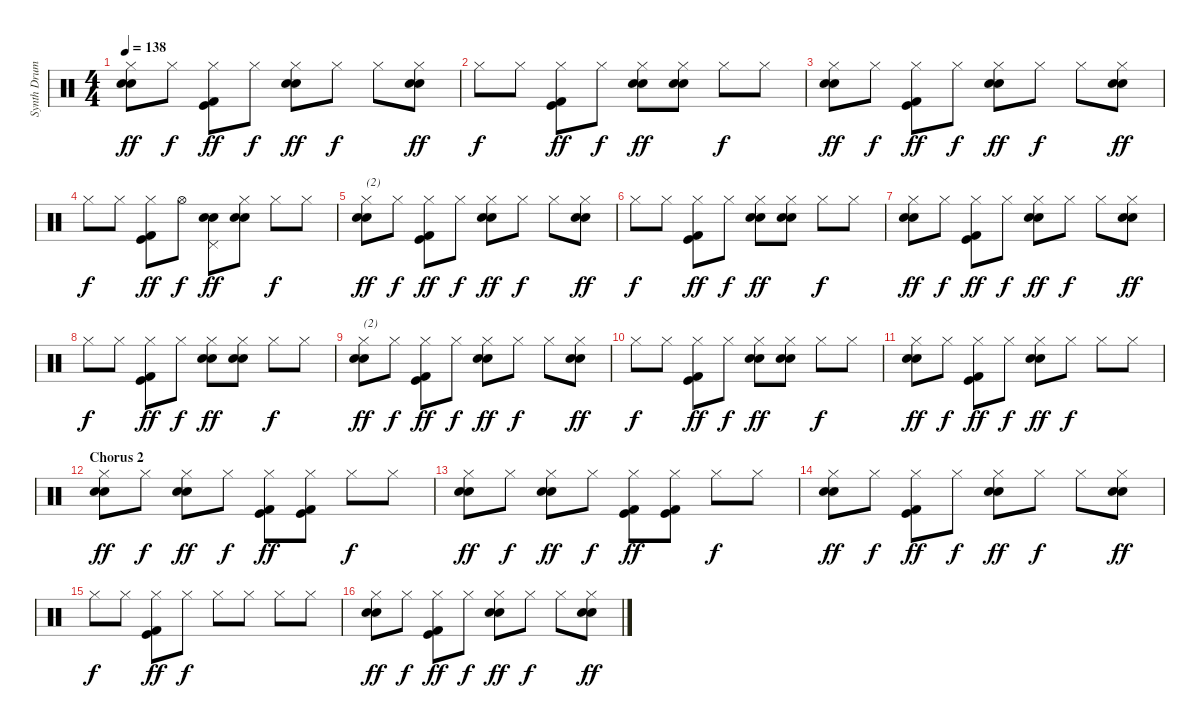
\track ("Synth Drums" "Synth Drum") {instrument percussion}
\staff {score}
\articulation defaults
\ts (4 4)
\tempo 138
\clef neutral
\ks c
("Hi-Hat (closed)" "Electric Snare (hit)" "Snare (hit) 2").8{dy ff} "Hi-Hat (closed)".8{dy f} ("Hi-Hat (closed)" "Kick (hit)" "Kick (hit) 2").8{dy ff} "Hi-Hat (closed)".8{dy f} ("Hi-Hat (closed)" "Electric Snare (hit)" "Snare (hit) 2").8{dy ff} "Hi-Hat (closed)".8{dy f} "Hi-Hat (closed)".8 ("Hi-Hat (closed)" "Electric Snare (hit)" "Snare (hit) 2").8{dy ff} |
"Hi-Hat (closed)".8{dy f} "Hi-Hat (closed)".8 ("Hi-Hat (closed)" "Kick (hit)" "Kick (hit) 2").8{dy ff} "Hi-Hat (closed)".8{dy f} ("Hi-Hat (closed)" "Electric Snare (hit)" "Snare (hit) 2").8{dy ff} ("Hi-Hat (closed)" "Electric Snare (hit)" "Snare (hit) 2").8 "Hi-Hat (closed)".8{dy f} "Hi-Hat (closed)".8 |
("Hi-Hat (closed)" "Electric Snare (hit)" "Snare (hit) 2").8{dy ff} "Hi-Hat (closed)".8{dy f} ("Hi-Hat (closed)" "Kick (hit)" "Kick (hit) 2").8{dy ff} "Hi-Hat (closed)".8{dy f} ("Hi-Hat (closed)" "Electric Snare (hit)" "Snare (hit) 2").8{dy ff} "Hi-Hat (closed)".8{dy f} "Hi-Hat (closed)".8 ("Hi-Hat (closed)" "Electric Snare (hit)" "Snare (hit) 2").8{dy ff} |
"Hi-Hat (closed)".8{dy f} "Hi-Hat (closed)".8 ("Hi-Hat (closed)" "Kick (hit)" "Kick (hit) 2").8{dy ff} "Hi-Hat (open)".8{dy f} ("Pedal Hi-Hat (hit)" "Electric Snare (hit)" "Snare (hit) 2").8{dy ff} ("Hi-Hat (closed)" "Electric Snare (hit)" "Snare (hit) 2").8 "Hi-Hat (closed)".8{dy f} "Hi-Hat (closed)".8 |
("Hi-Hat (closed)" "Electric Snare (hit)" "Snare (hit) 2").8{txt "(2)" dy ff} "Hi-Hat (closed)".8{dy f} ("Hi-Hat (closed)" "Kick (hit)" "Kick (hit) 2").8{dy ff} "Hi-Hat (closed)".8{dy f} ("Hi-Hat (closed)" "Electric Snare (hit)" "Snare (hit) 2").8{dy ff} "Hi-Hat (closed)".8{dy f} "Hi-Hat (closed)".8 ("Hi-Hat (closed)" "Electric Snare (hit)" "Snare (hit) 2").8{dy ff} |
"Hi-Hat (closed)".8{dy f} "Hi-Hat (closed)".8 ("Hi-Hat (closed)" "Kick (hit)" "Kick (hit) 2").8{dy ff} "Hi-Hat (closed)".8{dy f} ("Hi-Hat (closed)" "Electric Snare (hit)" "Snare (hit) 2").8{dy ff} ("Hi-Hat (closed)" "Electric Snare (hit)" "Snare (hit) 2").8 "Hi-Hat (closed)".8{dy f} "Hi-Hat (closed)".8 |
("Hi-Hat (closed)" "Electric Snare (hit)" "Snare (hit) 2").8{dy ff} "Hi-Hat (closed)".8{dy f} ("Hi-Hat (closed)" "Kick (hit)" "Kick (hit) 2").8{dy ff} "Hi-Hat (closed)".8{dy f} ("Hi-Hat (closed)" "Electric Snare (hit)" "Snare (hit) 2").8{dy ff} "Hi-Hat (closed)".8{dy f} "Hi-Hat (closed)".8 ("Hi-Hat (closed)" "Electric Snare (hit)" "Snare (hit) 2").8{dy ff} |
"Hi-Hat (closed)".8{dy f} "Hi-Hat (closed)".8 ("Hi-Hat (closed)" "Kick (hit)" "Kick (hit) 2").8{dy ff} "Hi-Hat (closed)".8{dy f} ("Hi-Hat (closed)" "Electric Snare (hit)" "Snare (hit) 2").8{dy ff} ("Hi-Hat (closed)" "Electric Snare (hit)" "Snare (hit) 2").8 "Hi-Hat (closed)".8{dy f} "Hi-Hat (closed)".8 |
("Hi-Hat (closed)" "Electric Snare (hit)" "Snare (hit) 2").8{txt "(2)" dy ff} "Hi-Hat (closed)".8{dy f} ("Hi-Hat (closed)" "Kick (hit)" "Kick (hit) 2").8{dy ff} "Hi-Hat (closed)".8{dy f} ("Hi-Hat (closed)" "Electric Snare (hit)" "Snare (hit) 2").8{dy ff} "Hi-Hat (closed)".8{dy f} "Hi-Hat (closed)".8 ("Hi-Hat (closed)" "Electric Snare (hit)" "Snare (hit) 2").8{dy ff} |
"Hi-Hat (closed)".8{dy f} "Hi-Hat (closed)".8 ("Hi-Hat (closed)" "Kick (hit)" "Kick (hit) 2").8{dy ff} "Hi-Hat (closed)".8{dy f} ("Hi-Hat (closed)" "Electric Snare (hit)" "Snare (hit) 2").8{dy ff} ("Hi-Hat (closed)" "Electric Snare (hit)" "Snare (hit) 2").8 "Hi-Hat (closed)".8{dy f} "Hi-Hat (closed)".8 |
("Hi-Hat (closed)" "Electric Snare (hit)" "Snare (hit) 2").8{dy ff} "Hi-Hat (closed)".8{dy f} ("Hi-Hat (closed)" "Kick (hit)" "Kick (hit) 2").8{dy ff} "Hi-Hat (closed)".8{dy f} ("Hi-Hat (closed)" "Electric Snare (hit)" "Snare (hit) 2").8{dy ff} "Hi-Hat (closed)".8{dy f} "Hi-Hat (closed)".8 "Hi-Hat (closed)".8 |
\section ("" "Chorus 2")
("Hi-Hat (closed)" "Electric Snare (hit)" "Snare (hit) 2").8{dy ff} "Hi-Hat (closed)".8{dy f} ("Hi-Hat (closed)" "Electric Snare (hit)" "Snare (hit) 2").8{dy ff} "Hi-Hat (closed)".8{dy f} ("Hi-Hat (closed)" "Kick (hit)" "Kick (hit) 2").8{dy ff} ("Hi-Hat (closed)" "Kick (hit)" "Kick (hit) 2").8 "Hi-Hat (closed)".8{dy f} "Hi-Hat (closed)".8 |
("Hi-Hat (closed)" "Electric Snare (hit)" "Snare (hit) 2").8{dy ff} "Hi-Hat (closed)".8{dy f} ("Hi-Hat (closed)" "Electric Snare (hit)" "Snare (hit) 2").8{dy ff} "Hi-Hat (closed)".8{dy f} ("Hi-Hat (closed)" "Kick (hit)" "Kick (hit) 2").8{dy ff} ("Hi-Hat (closed)" "Kick (hit)" "Kick (hit) 2").8 "Hi-Hat (closed)".8{dy f} "Hi-Hat (closed)".8 |
("Hi-Hat (closed)" "Electric Snare (hit)" "Snare (hit) 2").8{dy ff} "Hi-Hat (closed)".8{dy f} ("Hi-Hat (closed)" "Kick (hit)" "Kick (hit) 2").8{dy ff} "Hi-Hat (closed)".8{dy f} ("Hi-Hat (closed)" "Electric Snare (hit)" "Snare (hit) 2").8{dy ff} "Hi-Hat (closed)".8{dy f} "Hi-Hat (closed)".8 ("Hi-Hat (closed)" "Electric Snare (hit)" "Snare (hit) 2").8{dy ff} |
"Hi-Hat (closed)".8{dy f} "Hi-Hat (closed)".8 ("Hi-Hat (closed)" "Kick (hit)" "Kick (hit) 2").8{dy ff} "Hi-Hat (closed)".8{dy f} "Hi-Hat (closed)".8 "Hi-Hat (closed)".8 "Hi-Hat (closed)".8 "Hi-Hat (closed)".8 |
("Hi-Hat (closed)" "Electric Snare (hit)" "Snare (hit) 2").8{dy ff} "Hi-Hat (closed)".8{dy f} ("Hi-Hat (closed)" "Kick (hit)" "Kick (hit) 2").8{dy ff} "Hi-Hat (closed)".8{dy f} ("Hi-Hat (closed)" "Electric Snare (hit)" "Snare (hit) 2").8{dy ff} "Hi-Hat (closed)".8{dy f} "Hi-Hat (closed)".8 ("Hi-Hat (closed)" "Electric Snare (hit)" "Snare (hit) 2").8{dy ff}
